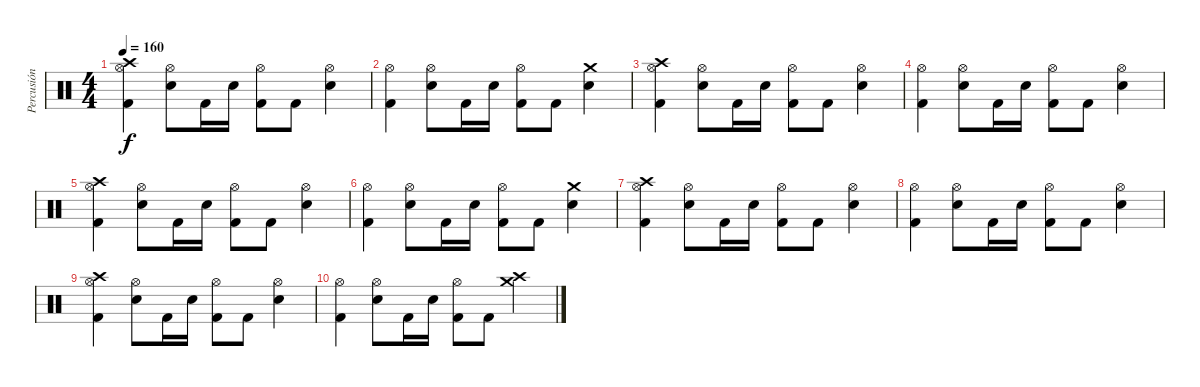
\track ("Percusión" "Percusión") {instrument percussion}
\staff {score}
\articulation defaults
\ts (4 4)
\tempo 160
\clef neutral
\ks c
("Crash high (hit)" "Hi-Hat (open)" "Kick (hit) 2").4{dy f} ("Hi-Hat (open)" "Snare (hit) 2").8 "Kick (hit) 2".16 "Snare (hit) 2".16 ("Hi-Hat (open)" "Kick (hit) 2").8 "Kick (hit) 2".8 ("Hi-Hat (open)" "Snare (hit) 2").4 |
("Hi-Hat (open)" "Kick (hit) 2").4 ("Hi-Hat (open)" "Snare (hit) 2").8 "Kick (hit) 2".16 "Snare (hit) 2".16 ("Hi-Hat (open)" "Kick (hit) 2").8 "Kick (hit) 2".8 ("Crash medium (hit)" "Snare (hit) 2").4 |
("Crash high (hit)" "Hi-Hat (open)" "Kick (hit) 2").4 ("Hi-Hat (open)" "Snare (hit) 2").8 "Kick (hit) 2".16 "Snare (hit) 2".16 ("Hi-Hat (open)" "Kick (hit) 2").8 "Kick (hit) 2".8 ("Hi-Hat (open)" "Snare (hit) 2").4 |
("Hi-Hat (open)" "Kick (hit) 2").4 ("Hi-Hat (open)" "Snare (hit) 2").8 "Kick (hit) 2".16 "Snare (hit) 2".16 ("Hi-Hat (open)" "Kick (hit) 2").8 "Kick (hit) 2".8 ("Hi-Hat (open)" "Snare (hit) 2").4 |
("Crash high (hit)" "Hi-Hat (open)" "Kick (hit) 2").4 ("Hi-Hat (open)" "Snare (hit) 2").8 "Kick (hit) 2".16 "Snare (hit) 2".16 ("Hi-Hat (open)" "Kick (hit) 2").8 "Kick (hit) 2".8 ("Hi-Hat (open)" "Snare (hit) 2").4 |
("Hi-Hat (open)" "Kick (hit) 2").4 ("Hi-Hat (open)" "Snare (hit) 2").8 "Kick (hit) 2".16 "Snare (hit) 2".16 ("Hi-Hat (open)" "Kick (hit) 2").8 "Kick (hit) 2".8 ("Crash medium (hit)" "Snare (hit) 2").4 |
("Crash high (hit)" "Hi-Hat (open)" "Kick (hit) 2").4 ("Hi-Hat (open)" "Snare (hit) 2").8 "Kick (hit) 2".16 "Snare (hit) 2".16 ("Hi-Hat (open)" "Kick (hit) 2").8 "Kick (hit) 2".8 ("Hi-Hat (open)" "Snare (hit) 2").4 |
("Hi-Hat (open)" "Kick (hit) 2").4 ("Hi-Hat (open)" "Snare (hit) 2").8 "Kick (hit) 2".16 "Snare (hit) 2".16 ("Hi-Hat (open)" "Kick (hit) 2").8 "Kick (hit) 2".8 ("Hi-Hat (open)" "Snare (hit) 2").4 |
("Crash high (hit)" "Hi-Hat (open)" "Kick (hit) 2").4 ("Hi-Hat (open)" "Snare (hit) 2").8 "Kick (hit) 2".16 "Snare (hit) 2".16 ("Hi-Hat (open)" "Kick (hit) 2").8 "Kick (hit) 2".8 ("Hi-Hat (open)" "Snare (hit) 2").4 |
("Hi-Hat (open)" "Kick (hit) 2").4 ("Hi-Hat (open)" "Snare (hit) 2").8 "Kick (hit) 2".16 "Snare (hit) 2".16 ("Hi-Hat (open)" "Kick (hit) 2").8 "Kick (hit) 2".8 ("Crash high (hit)" "Crash medium (hit)").4
